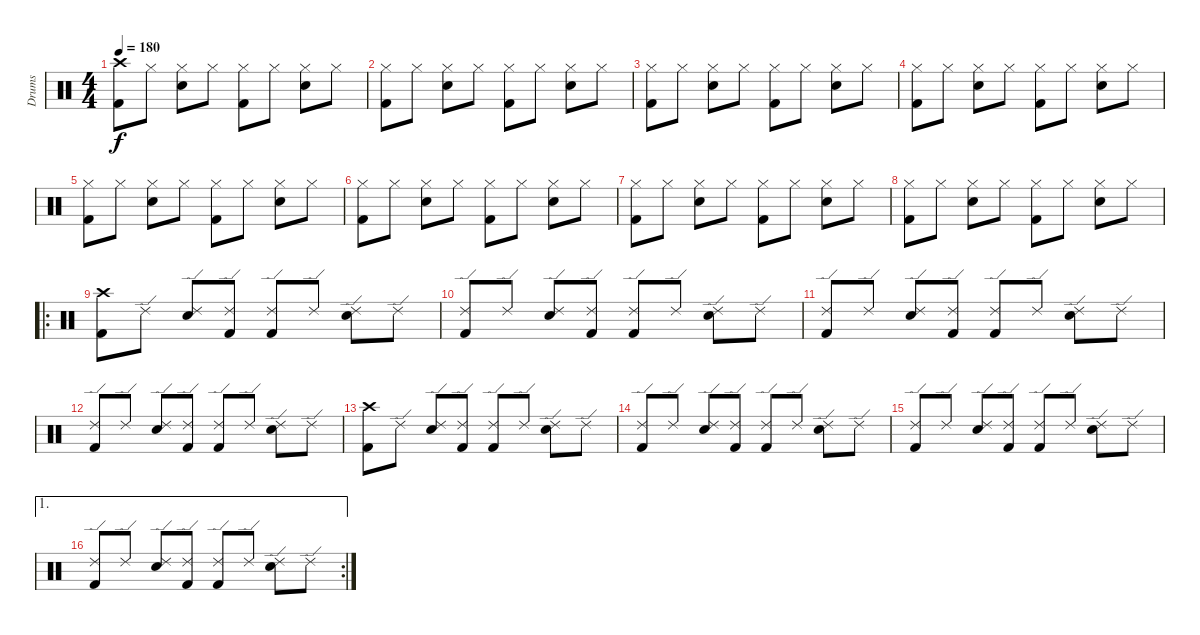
\track ("Drums" "Drums") {instrument percussion}
\staff {score}
\articulation defaults
\ts (4 4)
\tempo 180
\clef neutral
\ks c
("Crash high (hit)" "Kick (hit) 2").8{dy f} "Hi-Hat (closed)".8 ("Hi-Hat (closed)" "Electric Snare (hit)").8 "Hi-Hat (closed)".8 ("Hi-Hat (closed)" "Kick (hit) 2").8 "Hi-Hat (closed)".8 ("Hi-Hat (closed)" "Electric Snare (hit)").8 "Hi-Hat (closed)".8 |
("Hi-Hat (closed)" "Kick (hit) 2").8 "Hi-Hat (closed)".8 ("Hi-Hat (closed)" "Electric Snare (hit)").8 "Hi-Hat (closed)".8 ("Hi-Hat (closed)" "Kick (hit) 2").8 "Hi-Hat (closed)".8 ("Hi-Hat (closed)" "Electric Snare (hit)").8 "Hi-Hat (closed)".8 |
("Hi-Hat (closed)" "Kick (hit) 2").8 "Hi-Hat (closed)".8 ("Hi-Hat (closed)" "Electric Snare (hit)").8 "Hi-Hat (closed)".8 ("Hi-Hat (closed)" "Kick (hit) 2").8 "Hi-Hat (closed)".8 ("Hi-Hat (closed)" "Electric Snare (hit)").8 "Hi-Hat (closed)".8 |
("Hi-Hat (closed)" "Kick (hit) 2").8 "Hi-Hat (closed)".8 ("Hi-Hat (closed)" "Electric Snare (hit)").8 "Hi-Hat (closed)".8 ("Hi-Hat (closed)" "Kick (hit) 2").8 "Hi-Hat (closed)".8 ("Hi-Hat (closed)" "Electric Snare (hit)").8 "Hi-Hat (closed)".8 |
("Hi-Hat (closed)" "Kick (hit) 2").8 "Hi-Hat (closed)".8 ("Hi-Hat (closed)" "Electric Snare (hit)").8 "Hi-Hat (closed)".8 ("Hi-Hat (closed)" "Kick (hit) 2").8 "Hi-Hat (closed)".8 ("Hi-Hat (closed)" "Electric Snare (hit)").8 "Hi-Hat (closed)".8 |
("Hi-Hat (closed)" "Kick (hit) 2").8 "Hi-Hat (closed)".8 ("Hi-Hat (closed)" "Electric Snare (hit)").8 "Hi-Hat (closed)".8 ("Hi-Hat (closed)" "Kick (hit) 2").8 "Hi-Hat (closed)".8 ("Hi-Hat (closed)" "Electric Snare (hit)").8 "Hi-Hat (closed)".8 |
("Hi-Hat (closed)" "Kick (hit) 2").8 "Hi-Hat (closed)".8 ("Hi-Hat (closed)" "Electric Snare (hit)").8 "Hi-Hat (closed)".8 ("Hi-Hat (closed)" "Kick (hit) 2").8 "Hi-Hat (closed)".8 ("Hi-Hat (closed)" "Electric Snare (hit)").8 "Hi-Hat (closed)".8 |
("Hi-Hat (closed)" "Kick (hit) 2").8 "Hi-Hat (closed)".8 ("Hi-Hat (closed)" "Electric Snare (hit)").8 "Hi-Hat (closed)".8 ("Hi-Hat (closed)" "Kick (hit) 2").8 "Hi-Hat (closed)".8 ("Hi-Hat (closed)" "Electric Snare (hit)").8 "Hi-Hat (closed)".8 |
\ro
("Crash high (hit)" "Kick (hit) 2").8 "Ride (edge) 2".8 ("Ride (edge) 2" "Electric Snare (hit)").8 ("Ride (edge) 2" "Kick (hit) 2").8 ("Ride (edge) 2" "Kick (hit) 2").8 "Ride (edge) 2".8 ("Ride (edge) 2" "Electric Snare (hit)").8 "Ride (edge) 2".8 |
("Ride (edge) 2" "Kick (hit) 2").8 "Ride (edge) 2".8 ("Ride (edge) 2" "Electric Snare (hit)").8 ("Ride (edge) 2" "Kick (hit) 2").8 ("Ride (edge) 2" "Kick (hit) 2").8 "Ride (edge) 2".8 ("Ride (edge) 2" "Electric Snare (hit)").8 "Ride (edge) 2".8 |
("Ride (edge) 2" "Kick (hit) 2").8 "Ride (edge) 2".8 ("Ride (edge) 2" "Electric Snare (hit)").8 ("Ride (edge) 2" "Kick (hit) 2").8 ("Ride (edge) 2" "Kick (hit) 2").8 "Ride (edge) 2".8 ("Ride (edge) 2" "Electric Snare (hit)").8 "Ride (edge) 2".8 |
("Ride (edge) 2" "Kick (hit) 2").8 "Ride (edge) 2".8 ("Ride (edge) 2" "Electric Snare (hit)").8 ("Ride (edge) 2" "Kick (hit) 2").8 ("Ride (edge) 2" "Kick (hit) 2").8 "Ride (edge) 2".8 ("Ride (edge) 2" "Electric Snare (hit)").8 "Ride (edge) 2".8 |
("Crash high (hit)" "Kick (hit) 2").8 "Ride (edge) 2".8 ("Ride (edge) 2" "Electric Snare (hit)").8 ("Ride (edge) 2" "Kick (hit) 2").8 ("Ride (edge) 2" "Kick (hit) 2").8 "Ride (edge) 2".8 ("Ride (edge) 2" "Electric Snare (hit)").8 "Ride (edge) 2".8 |
("Ride (edge) 2" "Kick (hit) 2").8 "Ride (edge) 2".8 ("Ride (edge) 2" "Electric Snare (hit)").8 ("Ride (edge) 2" "Kick (hit) 2").8 ("Ride (edge) 2" "Kick (hit) 2").8 "Ride (edge) 2".8 ("Ride (edge) 2" "Electric Snare (hit)").8 "Ride (edge) 2".8 |
("Ride (edge) 2" "Kick (hit) 2").8 "Ride (edge) 2".8 ("Ride (edge) 2" "Electric Snare (hit)").8 ("Ride (edge) 2" "Kick (hit) 2").8 ("Ride (edge) 2" "Kick (hit) 2").8 "Ride (edge) 2".8 ("Ride (edge) 2" "Electric Snare (hit)").8 "Ride (edge) 2".8 |
\ae 1
\rc 2
("Ride (edge) 2" "Kick (hit) 2").8 "Ride (edge) 2".8 ("Ride (edge) 2" "Electric Snare (hit)").8 ("Ride (edge) 2" "Kick (hit) 2").8 ("Ride (edge) 2" "Kick (hit) 2").8 "Ride (edge) 2".8 ("Ride (edge) 2" "Electric Snare (hit)").8 "Ride (edge) 2".8
